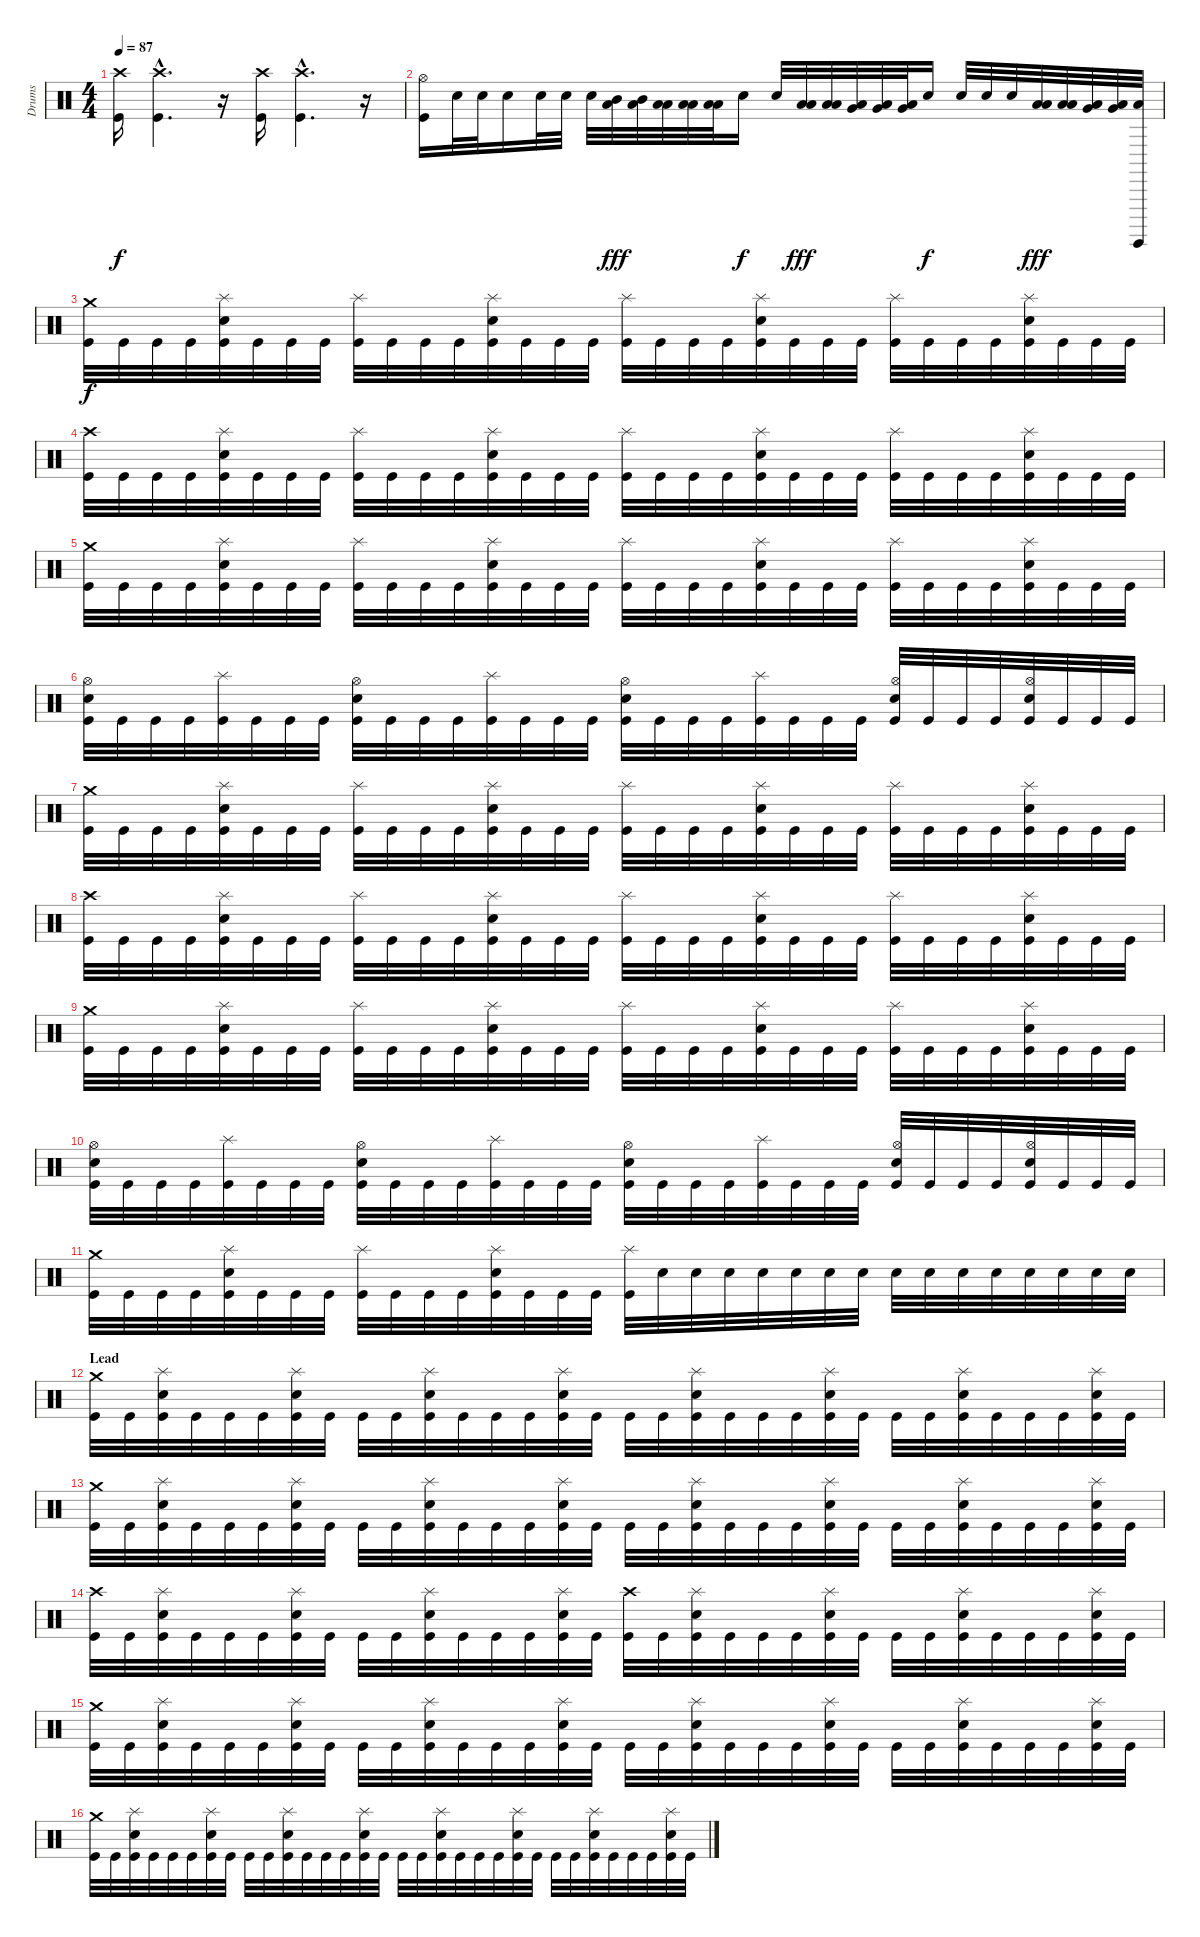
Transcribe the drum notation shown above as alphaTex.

\track ("Drums" "Drums") {instrument percussion}
\staff {score}
\articulation defaults
\ts (4 4)
\tempo 87
\clef neutral
\ks c
("Crash high (hit)" "Kick (hit)").16{dy f} ("Crash high (hit)"{hac} "Kick (hit)"{hac}).4{d} r.16 ("Crash high (hit)" "Kick (hit)").16 ("Crash high (hit)"{hac} "Kick (hit)"{hac}).4{d} r.16 |
("Hi-Hat (open)" "Kick (hit)").16 "Electric Snare (hit)".32 "Electric Snare (hit)".32 "Electric Snare (hit)".16 "Electric Snare (hit)".32 "Electric Snare (hit)".32 "Electric Snare (hit)".32 ("Low Floor Tom (hit)" "Mid Tom (hit)").32{dy fff} ("Low Floor Tom (hit)" "Mid Tom (hit)").32 ("Low Floor Tom (hit)" "Low Tom (hit)").32 ("Low Floor Tom (hit)" "Low Tom (hit)").32 ("Low Floor Tom (hit)" "Low Tom (hit)").32 "Electric Snare (hit)".16{dy f} "Electric Snare (hit)".32 ("Low Floor Tom (hit)" "Low Tom (hit)").32{dy fff} ("Low Floor Tom (hit)" "Low Tom (hit)").32 ("Low Floor Tom (hit)" "Very Low Tom (hit)").32 ("Low Floor Tom (hit)" "Very Low Tom (hit)").32 ("Low Floor Tom (hit)" "Very Low Tom (hit)").32 "Electric Snare (hit)".16{dy f} "Electric Snare (hit)".32 "Electric Snare (hit)".32 "Electric Snare (hit)".32 ("Low Floor Tom (hit)" "Low Tom (hit)").32{dy fff} ("Low Floor Tom (hit)" "Low Tom (hit)").32 ("Low Floor Tom (hit)" "Very Low Tom (hit)").32 ("Low Floor Tom (hit)" "Very Low Tom (hit)").32 ("Surdo (hit)" "Low Floor Tom (hit)").32 |
("Crash medium (hit)" "Kick (hit)").32{dy f} "Kick (hit)".32 "Kick (hit)".32 "Kick (hit)".32 ("Splash (hit)" "Electric Snare (hit)" "Kick (hit)").32 "Kick (hit)".32 "Kick (hit)".32 "Kick (hit)".32 ("Splash (hit)" "Kick (hit)").32 "Kick (hit)".32 "Kick (hit)".32 "Kick (hit)".32 ("Splash (hit)" "Electric Snare (hit)" "Kick (hit)").32 "Kick (hit)".32 "Kick (hit)".32 "Kick (hit)".32 ("Splash (hit)" "Kick (hit)").32 "Kick (hit)".32 "Kick (hit)".32 "Kick (hit)".32 ("Splash (hit)" "Electric Snare (hit)" "Kick (hit)").32 "Kick (hit)".32 "Kick (hit)".32 "Kick (hit)".32 ("Splash (hit)" "Kick (hit)").32 "Kick (hit)".32 "Kick (hit)".32 "Kick (hit)".32 ("Splash (hit)" "Electric Snare (hit)" "Kick (hit)").32 "Kick (hit)".32 "Kick (hit)".32 "Kick (hit)".32 |
("Crash high (hit)" "Kick (hit)").32 "Kick (hit)".32 "Kick (hit)".32 "Kick (hit)".32 ("Splash (hit)" "Electric Snare (hit)" "Kick (hit)").32 "Kick (hit)".32 "Kick (hit)".32 "Kick (hit)".32 ("Splash (hit)" "Kick (hit)").32 "Kick (hit)".32 "Kick (hit)".32 "Kick (hit)".32 ("Splash (hit)" "Electric Snare (hit)" "Kick (hit)").32 "Kick (hit)".32 "Kick (hit)".32 "Kick (hit)".32 ("Splash (hit)" "Kick (hit)").32 "Kick (hit)".32 "Kick (hit)".32 "Kick (hit)".32 ("Splash (hit)" "Electric Snare (hit)" "Kick (hit)").32 "Kick (hit)".32 "Kick (hit)".32 "Kick (hit)".32 ("Splash (hit)" "Kick (hit)").32 "Kick (hit)".32 "Kick (hit)".32 "Kick (hit)".32 ("Splash (hit)" "Electric Snare (hit)" "Kick (hit)").32 "Kick (hit)".32 "Kick (hit)".32 "Kick (hit)".32 |
("Crash medium (hit)" "Kick (hit)").32 "Kick (hit)".32 "Kick (hit)".32 "Kick (hit)".32 ("Splash (hit)" "Electric Snare (hit)" "Kick (hit)").32 "Kick (hit)".32 "Kick (hit)".32 "Kick (hit)".32 ("Splash (hit)" "Kick (hit)").32 "Kick (hit)".32 "Kick (hit)".32 "Kick (hit)".32 ("Splash (hit)" "Electric Snare (hit)" "Kick (hit)").32 "Kick (hit)".32 "Kick (hit)".32 "Kick (hit)".32 ("Splash (hit)" "Kick (hit)").32 "Kick (hit)".32 "Kick (hit)".32 "Kick (hit)".32 ("Splash (hit)" "Electric Snare (hit)" "Kick (hit)").32 "Kick (hit)".32 "Kick (hit)".32 "Kick (hit)".32 ("Splash (hit)" "Kick (hit)").32 "Kick (hit)".32 "Kick (hit)".32 "Kick (hit)".32 ("Splash (hit)" "Electric Snare (hit)" "Kick (hit)").32 "Kick (hit)".32 "Kick (hit)".32 "Kick (hit)".32 |
("Hi-Hat (open)" "Electric Snare (hit)" "Kick (hit)").32 "Kick (hit)".32 "Kick (hit)".32 "Kick (hit)".32 ("Splash (hit)" "Kick (hit)").32 "Kick (hit)".32 "Kick (hit)".32 "Kick (hit)".32 ("Hi-Hat (open)" "Electric Snare (hit)" "Kick (hit)").32 "Kick (hit)".32 "Kick (hit)".32 "Kick (hit)".32 ("Splash (hit)" "Kick (hit)").32 "Kick (hit)".32 "Kick (hit)".32 "Kick (hit)".32 ("Hi-Hat (open)" "Electric Snare (hit)" "Kick (hit)").32 "Kick (hit)".32 "Kick (hit)".32 "Kick (hit)".32 ("Splash (hit)" "Kick (hit)").32 "Kick (hit)".32 "Kick (hit)".32 "Kick (hit)".32 ("Hi-Hat (open)" "Electric Snare (hit)" "Kick (hit)").32 "Kick (hit)".32 "Kick (hit)".32 "Kick (hit)".32 ("Hi-Hat (open)" "Electric Snare (hit)" "Kick (hit)").32 "Kick (hit)".32 "Kick (hit)".32 "Kick (hit)".32 |
("Crash medium (hit)" "Kick (hit)").32 "Kick (hit)".32 "Kick (hit)".32 "Kick (hit)".32 ("Splash (hit)" "Electric Snare (hit)" "Kick (hit)").32 "Kick (hit)".32 "Kick (hit)".32 "Kick (hit)".32 ("Splash (hit)" "Kick (hit)").32 "Kick (hit)".32 "Kick (hit)".32 "Kick (hit)".32 ("Splash (hit)" "Electric Snare (hit)" "Kick (hit)").32 "Kick (hit)".32 "Kick (hit)".32 "Kick (hit)".32 ("Splash (hit)" "Kick (hit)").32 "Kick (hit)".32 "Kick (hit)".32 "Kick (hit)".32 ("Splash (hit)" "Electric Snare (hit)" "Kick (hit)").32 "Kick (hit)".32 "Kick (hit)".32 "Kick (hit)".32 ("Splash (hit)" "Kick (hit)").32 "Kick (hit)".32 "Kick (hit)".32 "Kick (hit)".32 ("Splash (hit)" "Electric Snare (hit)" "Kick (hit)").32 "Kick (hit)".32 "Kick (hit)".32 "Kick (hit)".32 |
("Crash high (hit)" "Kick (hit)").32 "Kick (hit)".32 "Kick (hit)".32 "Kick (hit)".32 ("Splash (hit)" "Electric Snare (hit)" "Kick (hit)").32 "Kick (hit)".32 "Kick (hit)".32 "Kick (hit)".32 ("Splash (hit)" "Kick (hit)").32 "Kick (hit)".32 "Kick (hit)".32 "Kick (hit)".32 ("Splash (hit)" "Electric Snare (hit)" "Kick (hit)").32 "Kick (hit)".32 "Kick (hit)".32 "Kick (hit)".32 ("Splash (hit)" "Kick (hit)").32 "Kick (hit)".32 "Kick (hit)".32 "Kick (hit)".32 ("Splash (hit)" "Electric Snare (hit)" "Kick (hit)").32 "Kick (hit)".32 "Kick (hit)".32 "Kick (hit)".32 ("Splash (hit)" "Kick (hit)").32 "Kick (hit)".32 "Kick (hit)".32 "Kick (hit)".32 ("Splash (hit)" "Electric Snare (hit)" "Kick (hit)").32 "Kick (hit)".32 "Kick (hit)".32 "Kick (hit)".32 |
("Crash medium (hit)" "Kick (hit)").32 "Kick (hit)".32 "Kick (hit)".32 "Kick (hit)".32 ("Splash (hit)" "Electric Snare (hit)" "Kick (hit)").32 "Kick (hit)".32 "Kick (hit)".32 "Kick (hit)".32 ("Splash (hit)" "Kick (hit)").32 "Kick (hit)".32 "Kick (hit)".32 "Kick (hit)".32 ("Splash (hit)" "Electric Snare (hit)" "Kick (hit)").32 "Kick (hit)".32 "Kick (hit)".32 "Kick (hit)".32 ("Splash (hit)" "Kick (hit)").32 "Kick (hit)".32 "Kick (hit)".32 "Kick (hit)".32 ("Splash (hit)" "Electric Snare (hit)" "Kick (hit)").32 "Kick (hit)".32 "Kick (hit)".32 "Kick (hit)".32 ("Splash (hit)" "Kick (hit)").32 "Kick (hit)".32 "Kick (hit)".32 "Kick (hit)".32 ("Splash (hit)" "Electric Snare (hit)" "Kick (hit)").32 "Kick (hit)".32 "Kick (hit)".32 "Kick (hit)".32 |
("Hi-Hat (open)" "Electric Snare (hit)" "Kick (hit)").32 "Kick (hit)".32 "Kick (hit)".32 "Kick (hit)".32 ("Splash (hit)" "Kick (hit)").32 "Kick (hit)".32 "Kick (hit)".32 "Kick (hit)".32 ("Hi-Hat (open)" "Electric Snare (hit)" "Kick (hit)").32 "Kick (hit)".32 "Kick (hit)".32 "Kick (hit)".32 ("Splash (hit)" "Kick (hit)").32 "Kick (hit)".32 "Kick (hit)".32 "Kick (hit)".32 ("Hi-Hat (open)" "Electric Snare (hit)" "Kick (hit)").32 "Kick (hit)".32 "Kick (hit)".32 "Kick (hit)".32 ("Splash (hit)" "Kick (hit)").32 "Kick (hit)".32 "Kick (hit)".32 "Kick (hit)".32 ("Hi-Hat (open)" "Electric Snare (hit)" "Kick (hit)").32 "Kick (hit)".32 "Kick (hit)".32 "Kick (hit)".32 ("Hi-Hat (open)" "Electric Snare (hit)" "Kick (hit)").32 "Kick (hit)".32 "Kick (hit)".32 "Kick (hit)".32 |
("Crash medium (hit)" "Kick (hit)").32 "Kick (hit)".32 "Kick (hit)".32 "Kick (hit)".32 ("Splash (hit)" "Electric Snare (hit)" "Kick (hit)").32 "Kick (hit)".32 "Kick (hit)".32 "Kick (hit)".32 ("Splash (hit)" "Kick (hit)").32 "Kick (hit)".32 "Kick (hit)".32 "Kick (hit)".32 ("Splash (hit)" "Electric Snare (hit)" "Kick (hit)").32 "Kick (hit)".32 "Kick (hit)".32 "Kick (hit)".32 ("Splash (hit)" "Kick (hit)").32 "Electric Snare (hit)".32 "Electric Snare (hit)".32 "Electric Snare (hit)".32 "Electric Snare (hit)".32 "Electric Snare (hit)".32 "Electric Snare (hit)".32 "Electric Snare (hit)".32 "Electric Snare (hit)".32 "Electric Snare (hit)".32 "Electric Snare (hit)".32 "Electric Snare (hit)".32 "Electric Snare (hit)".32 "Electric Snare (hit)".32 "Electric Snare (hit)".32 "Electric Snare (hit)".32 |
\section ("" "Lead")
("Crash medium (hit)" "Kick (hit)").32 "Kick (hit)".32 ("Splash (hit)" "Electric Snare (hit)" "Kick (hit)").32 "Kick (hit)".32 "Kick (hit)".32 "Kick (hit)".32 ("Splash (hit)" "Electric Snare (hit)" "Kick (hit)").32 "Kick (hit)".32 "Kick (hit)".32 "Kick (hit)".32 ("Splash (hit)" "Electric Snare (hit)" "Kick (hit)").32 "Kick (hit)".32 "Kick (hit)".32 "Kick (hit)".32 ("Splash (hit)" "Electric Snare (hit)" "Kick (hit)").32 "Kick (hit)".32 "Kick (hit)".32 "Kick (hit)".32 ("Splash (hit)" "Electric Snare (hit)" "Kick (hit)").32 "Kick (hit)".32 "Kick (hit)".32 "Kick (hit)".32 ("Splash (hit)" "Electric Snare (hit)" "Kick (hit)").32 "Kick (hit)".32 "Kick (hit)".32 "Kick (hit)".32 ("Splash (hit)" "Electric Snare (hit)" "Kick (hit)").32 "Kick (hit)".32 "Kick (hit)".32 "Kick (hit)".32 ("Splash (hit)" "Electric Snare (hit)" "Kick (hit)").32 "Kick (hit)".32 |
("Crash medium (hit)" "Kick (hit)").32 "Kick (hit)".32 ("Splash (hit)" "Electric Snare (hit)" "Kick (hit)").32 "Kick (hit)".32 "Kick (hit)".32 "Kick (hit)".32 ("Splash (hit)" "Electric Snare (hit)" "Kick (hit)").32 "Kick (hit)".32 "Kick (hit)".32 "Kick (hit)".32 ("Splash (hit)" "Electric Snare (hit)" "Kick (hit)").32 "Kick (hit)".32 "Kick (hit)".32 "Kick (hit)".32 ("Splash (hit)" "Electric Snare (hit)" "Kick (hit)").32 "Kick (hit)".32 "Kick (hit)".32 "Kick (hit)".32 ("Splash (hit)" "Electric Snare (hit)" "Kick (hit)").32 "Kick (hit)".32 "Kick (hit)".32 "Kick (hit)".32 ("Splash (hit)" "Electric Snare (hit)" "Kick (hit)").32 "Kick (hit)".32 "Kick (hit)".32 "Kick (hit)".32 ("Splash (hit)" "Electric Snare (hit)" "Kick (hit)").32 "Kick (hit)".32 "Kick (hit)".32 "Kick (hit)".32 ("Splash (hit)" "Electric Snare (hit)" "Kick (hit)").32 "Kick (hit)".32 |
("Crash high (hit)" "Kick (hit)").32 "Kick (hit)".32 ("Splash (hit)" "Electric Snare (hit)" "Kick (hit)").32 "Kick (hit)".32 "Kick (hit)".32 "Kick (hit)".32 ("Splash (hit)" "Electric Snare (hit)" "Kick (hit)").32 "Kick (hit)".32 "Kick (hit)".32 "Kick (hit)".32 ("Splash (hit)" "Electric Snare (hit)" "Kick (hit)").32 "Kick (hit)".32 "Kick (hit)".32 "Kick (hit)".32 ("Splash (hit)" "Electric Snare (hit)" "Kick (hit)").32 "Kick (hit)".32 ("Crash high (hit)" "Kick (hit)").32 "Kick (hit)".32 ("Splash (hit)" "Electric Snare (hit)" "Kick (hit)").32 "Kick (hit)".32 "Kick (hit)".32 "Kick (hit)".32 ("Splash (hit)" "Electric Snare (hit)" "Kick (hit)").32 "Kick (hit)".32 "Kick (hit)".32 "Kick (hit)".32 ("Splash (hit)" "Electric Snare (hit)" "Kick (hit)").32 "Kick (hit)".32 "Kick (hit)".32 "Kick (hit)".32 ("Splash (hit)" "Electric Snare (hit)" "Kick (hit)").32 "Kick (hit)".32 |
("Crash medium (hit)" "Kick (hit)").32 "Kick (hit)".32 ("Splash (hit)" "Electric Snare (hit)" "Kick (hit)").32 "Kick (hit)".32 "Kick (hit)".32 "Kick (hit)".32 ("Splash (hit)" "Electric Snare (hit)" "Kick (hit)").32 "Kick (hit)".32 "Kick (hit)".32 "Kick (hit)".32 ("Splash (hit)" "Electric Snare (hit)" "Kick (hit)").32 "Kick (hit)".32 "Kick (hit)".32 "Kick (hit)".32 ("Splash (hit)" "Electric Snare (hit)" "Kick (hit)").32 "Kick (hit)".32 "Kick (hit)".32 "Kick (hit)".32 ("Splash (hit)" "Electric Snare (hit)" "Kick (hit)").32 "Kick (hit)".32 "Kick (hit)".32 "Kick (hit)".32 ("Splash (hit)" "Electric Snare (hit)" "Kick (hit)").32 "Kick (hit)".32 "Kick (hit)".32 "Kick (hit)".32 ("Splash (hit)" "Electric Snare (hit)" "Kick (hit)").32 "Kick (hit)".32 "Kick (hit)".32 "Kick (hit)".32 ("Splash (hit)" "Electric Snare (hit)" "Kick (hit)").32 "Kick (hit)".32 |
("Crash medium (hit)" "Kick (hit)").32 "Kick (hit)".32 ("Splash (hit)" "Electric Snare (hit)" "Kick (hit)").32 "Kick (hit)".32 "Kick (hit)".32 "Kick (hit)".32 ("Splash (hit)" "Electric Snare (hit)" "Kick (hit)").32 "Kick (hit)".32 "Kick (hit)".32 "Kick (hit)".32 ("Splash (hit)" "Electric Snare (hit)" "Kick (hit)").32 "Kick (hit)".32 "Kick (hit)".32 "Kick (hit)".32 ("Splash (hit)" "Electric Snare (hit)" "Kick (hit)").32 "Kick (hit)".32 "Kick (hit)".32 "Kick (hit)".32 ("Splash (hit)" "Electric Snare (hit)" "Kick (hit)").32 "Kick (hit)".32 "Kick (hit)".32 "Kick (hit)".32 ("Splash (hit)" "Electric Snare (hit)" "Kick (hit)").32 "Kick (hit)".32 "Kick (hit)".32 "Kick (hit)".32 ("Splash (hit)" "Electric Snare (hit)" "Kick (hit)").32 "Kick (hit)".32 "Kick (hit)".32 "Kick (hit)".32 ("Splash (hit)" "Electric Snare (hit)" "Kick (hit)").32 "Kick (hit)".32
